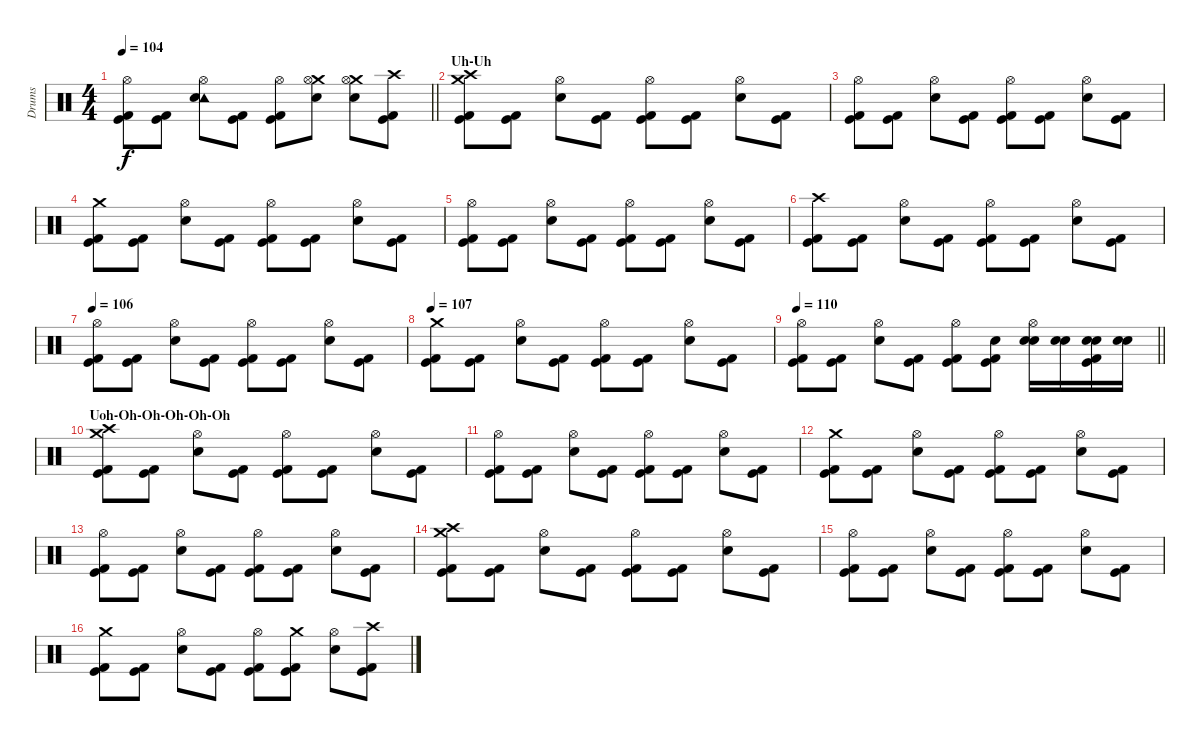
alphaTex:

\track ("Drums" "Drums") {instrument percussion}
\staff {score}
\articulation defaults
\ts (4 4)
\tempo 104
\clef neutral
\barLineRight lightlight
\ks c
("Hi-Hat (open)" "Kick (hit)" "Kick (hit) 2").8{dy f} ("Kick (hit)" "Kick (hit) 2").8 ("Hi-Hat (open)" "Tambourine (hit)" "Electric Snare (hit)").8 ("Kick (hit)" "Kick (hit) 2").8 ("Hi-Hat (open)" "Kick (hit)" "Kick (hit) 2").8 ("Crash medium (hit)" "Hi-Hat (open)" "Electric Snare (hit)").8 ("Crash medium (hit)" "Hi-Hat (open)" "Electric Snare (hit)").8 ("Crash high (hit)" "Kick (hit)" "Kick (hit) 2").8 |
\section ("" "Uh-Uh")
("Crash high (hit)" "Crash medium (hit)" "Kick (hit)" "Kick (hit) 2").8 ("Kick (hit)" "Kick (hit) 2").8 ("Hi-Hat (open)" "Electric Snare (hit)").8 ("Kick (hit)" "Kick (hit) 2").8 ("Hi-Hat (open)" "Kick (hit)" "Kick (hit) 2").8 ("Kick (hit)" "Kick (hit) 2").8 ("Hi-Hat (open)" "Electric Snare (hit)").8 ("Kick (hit)" "Kick (hit) 2").8 |
("Hi-Hat (open)" "Kick (hit)" "Kick (hit) 2").8 ("Kick (hit)" "Kick (hit) 2").8 ("Hi-Hat (open)" "Electric Snare (hit)").8 ("Kick (hit)" "Kick (hit) 2").8 ("Hi-Hat (open)" "Kick (hit)" "Kick (hit) 2").8 ("Kick (hit)" "Kick (hit) 2").8 ("Hi-Hat (open)" "Electric Snare (hit)").8 ("Kick (hit)" "Kick (hit) 2").8 |
("Crash medium (hit)" "Kick (hit)" "Kick (hit) 2").8 ("Kick (hit)" "Kick (hit) 2").8 ("Hi-Hat (open)" "Electric Snare (hit)").8 ("Kick (hit)" "Kick (hit) 2").8 ("Hi-Hat (open)" "Kick (hit)" "Kick (hit) 2").8 ("Kick (hit)" "Kick (hit) 2").8 ("Hi-Hat (open)" "Electric Snare (hit)").8 ("Kick (hit)" "Kick (hit) 2").8 |
("Hi-Hat (open)" "Kick (hit)" "Kick (hit) 2").8 ("Kick (hit)" "Kick (hit) 2").8 ("Hi-Hat (open)" "Electric Snare (hit)").8 ("Kick (hit)" "Kick (hit) 2").8 ("Hi-Hat (open)" "Kick (hit)" "Kick (hit) 2").8 ("Kick (hit)" "Kick (hit) 2").8 ("Hi-Hat (open)" "Electric Snare (hit)").8 ("Kick (hit)" "Kick (hit) 2").8 |
("Crash high (hit)" "Kick (hit)" "Kick (hit) 2").8 ("Kick (hit)" "Kick (hit) 2").8 ("Hi-Hat (open)" "Electric Snare (hit)").8 ("Kick (hit)" "Kick (hit) 2").8 ("Hi-Hat (open)" "Kick (hit)" "Kick (hit) 2").8 ("Kick (hit)" "Kick (hit) 2").8 ("Hi-Hat (open)" "Electric Snare (hit)").8 ("Kick (hit)" "Kick (hit) 2").8 |
\tempo 106
("Hi-Hat (open)" "Kick (hit)" "Kick (hit) 2").8 ("Kick (hit)" "Kick (hit) 2").8 ("Hi-Hat (open)" "Electric Snare (hit)").8 ("Kick (hit)" "Kick (hit) 2").8 ("Hi-Hat (open)" "Kick (hit)" "Kick (hit) 2").8 ("Kick (hit)" "Kick (hit) 2").8 ("Hi-Hat (open)" "Electric Snare (hit)").8 ("Kick (hit)" "Kick (hit) 2").8 |
\tempo 107
("Crash medium (hit)" "Kick (hit)" "Kick (hit) 2").8 ("Kick (hit)" "Kick (hit) 2").8 ("Hi-Hat (open)" "Electric Snare (hit)").8 ("Kick (hit)" "Kick (hit) 2").8 ("Hi-Hat (open)" "Kick (hit)" "Kick (hit) 2").8 ("Kick (hit)" "Kick (hit) 2").8 ("Hi-Hat (open)" "Electric Snare (hit)").8 ("Kick (hit)" "Kick (hit) 2").8 |
\tempo 110
\barLineRight lightlight
("Hi-Hat (open)" "Kick (hit)" "Kick (hit) 2").8 ("Kick (hit)" "Kick (hit) 2").8 ("Hi-Hat (open)" "Electric Snare (hit)").8 ("Kick (hit)" "Kick (hit) 2").8 ("Hi-Hat (open)" "Kick (hit)" "Kick (hit) 2").8 ("Electric Snare (hit)" "Kick (hit)" "Kick (hit) 2").8 ("Hi-Hat (open)" "Electric Snare (hit)" "Electric Snare (hit)").16 ("Electric Snare (hit)" "Electric Snare (hit)").16 ("Electric Snare (hit)" "Electric Snare (hit)" "Kick (hit)" "Kick (hit) 2").16 ("Electric Snare (hit)" "Electric Snare (hit)").16 |
\section ("" "Uoh-Oh-Oh-Oh-Oh-Oh")
("Crash high (hit)" "Crash medium (hit)" "Kick (hit)" "Kick (hit) 2").8 ("Kick (hit)" "Kick (hit) 2").8 ("Hi-Hat (open)" "Electric Snare (hit)").8 ("Kick (hit)" "Kick (hit) 2").8 ("Hi-Hat (open)" "Kick (hit)" "Kick (hit) 2").8 ("Kick (hit)" "Kick (hit) 2").8 ("Hi-Hat (open)" "Electric Snare (hit)").8 ("Kick (hit)" "Kick (hit) 2").8 |
("Hi-Hat (open)" "Kick (hit)" "Kick (hit) 2").8 ("Kick (hit)" "Kick (hit) 2").8 ("Hi-Hat (open)" "Electric Snare (hit)").8 ("Kick (hit)" "Kick (hit) 2").8 ("Hi-Hat (open)" "Kick (hit)" "Kick (hit) 2").8 ("Kick (hit)" "Kick (hit) 2").8 ("Hi-Hat (open)" "Electric Snare (hit)").8 ("Kick (hit)" "Kick (hit) 2").8 |
("Crash medium (hit)" "Kick (hit)" "Kick (hit) 2").8 ("Kick (hit)" "Kick (hit) 2").8 ("Hi-Hat (open)" "Electric Snare (hit)").8 ("Kick (hit)" "Kick (hit) 2").8 ("Hi-Hat (open)" "Kick (hit)" "Kick (hit) 2").8 ("Kick (hit)" "Kick (hit) 2").8 ("Hi-Hat (open)" "Electric Snare (hit)").8 ("Kick (hit)" "Kick (hit) 2").8 |
("Hi-Hat (open)" "Kick (hit)" "Kick (hit) 2").8 ("Kick (hit)" "Kick (hit) 2").8 ("Hi-Hat (open)" "Electric Snare (hit)").8 ("Kick (hit)" "Kick (hit) 2").8 ("Hi-Hat (open)" "Kick (hit)" "Kick (hit) 2").8 ("Kick (hit)" "Kick (hit) 2").8 ("Hi-Hat (open)" "Electric Snare (hit)").8 ("Kick (hit)" "Kick (hit) 2").8 |
("Crash high (hit)" "Crash medium (hit)" "Kick (hit)" "Kick (hit) 2").8 ("Kick (hit)" "Kick (hit) 2").8 ("Hi-Hat (open)" "Electric Snare (hit)").8 ("Kick (hit)" "Kick (hit) 2").8 ("Hi-Hat (open)" "Kick (hit)" "Kick (hit) 2").8 ("Kick (hit)" "Kick (hit) 2").8 ("Hi-Hat (open)" "Electric Snare (hit)").8 ("Kick (hit)" "Kick (hit) 2").8 |
("Hi-Hat (open)" "Kick (hit)" "Kick (hit) 2").8 ("Kick (hit)" "Kick (hit) 2").8 ("Hi-Hat (open)" "Electric Snare (hit)").8 ("Kick (hit)" "Kick (hit) 2").8 ("Hi-Hat (open)" "Kick (hit)" "Kick (hit) 2").8 ("Kick (hit)" "Kick (hit) 2").8 ("Hi-Hat (open)" "Electric Snare (hit)").8 ("Kick (hit)" "Kick (hit) 2").8 |
("Crash medium (hit)" "Kick (hit)" "Kick (hit) 2").8 ("Kick (hit)" "Kick (hit) 2").8 ("Hi-Hat (open)" "Electric Snare (hit)").8 ("Kick (hit)" "Kick (hit) 2").8 ("Hi-Hat (open)" "Kick (hit)" "Kick (hit) 2").8 ("Crash medium (hit)" "Kick (hit)" "Kick (hit) 2").8 ("Hi-Hat (open)" "Electric Snare (hit)").8 ("Crash high (hit)" "Kick (hit)" "Kick (hit) 2").8
